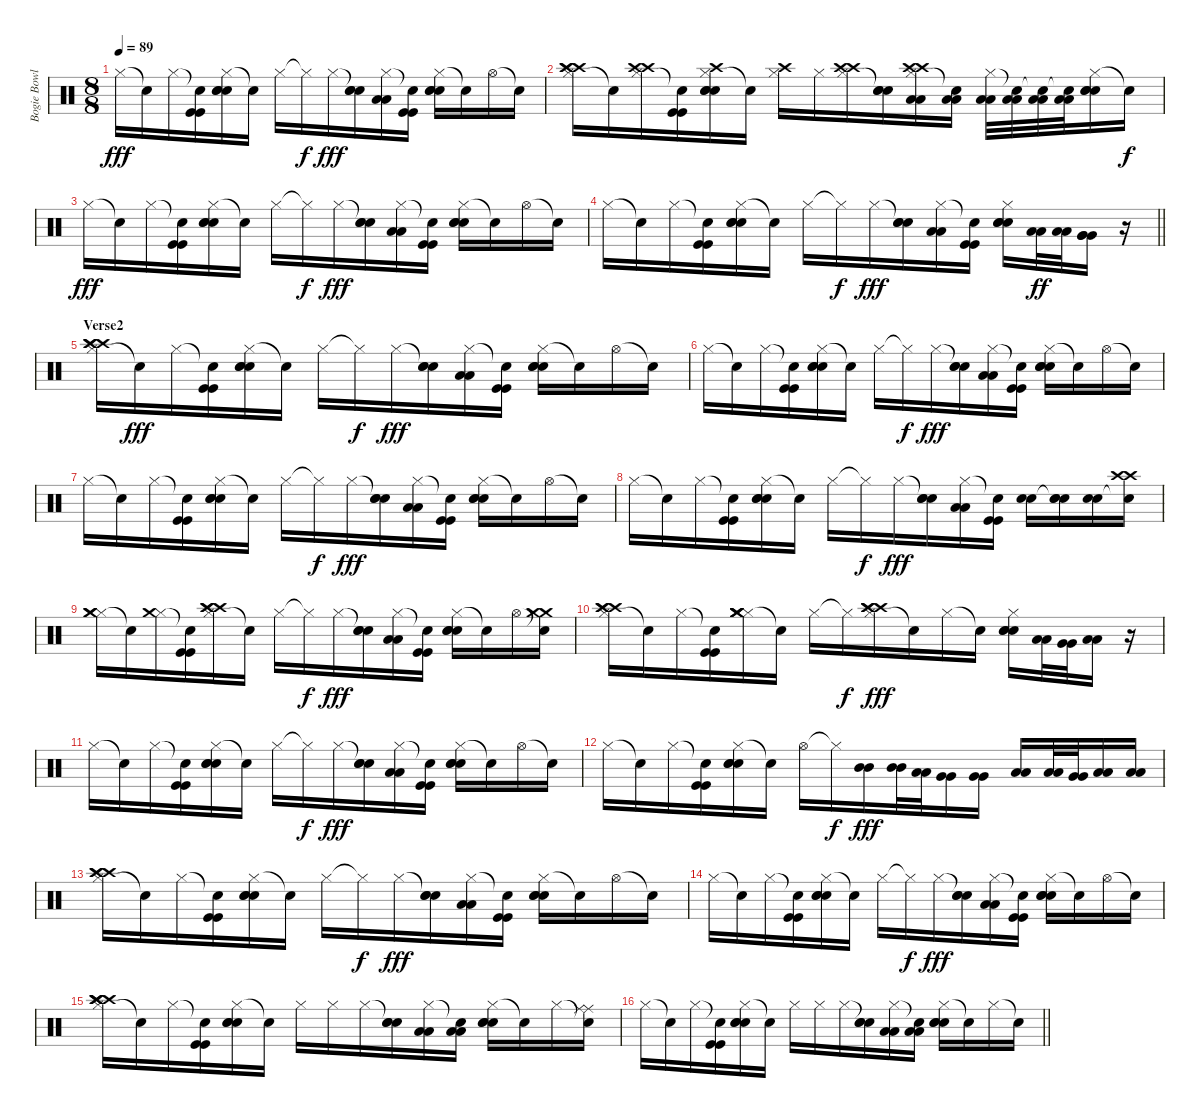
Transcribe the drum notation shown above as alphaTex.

\track ("Bogie Bowles Drums" "Bogie Bowl") {instrument percussion}
\staff {score}
\articulation defaults
\ts (8 8)
\tempo 89
\clef neutral
\ks c "Hi-Hat (closed)".16{dy fff} "Snare (hit)"{t}.16 "Hi-Hat (closed)".16
("Snare (hit)"{t} "Kick (hit)" "Kick (hit)").16 ("Hi-Hat (closed)" "Snare (hit) 2" "Snare (hit) 2" "Snare (hit) 2").16 "Snare (hit)"{t}.16 "Hi-Hat (closed)".16 "Hi-Hat (closed)"{t}.16{dy f} "Hi-Hat (closed)".16{dy fff} ("Snare (hit)"{t} "Snare (hit) 2" "Snare (hit) 2").16 ("Hi-Hat (closed)" "Low Tom (hit)" "Low Tom (hit)").16 ("Snare (hit)"{t} "Kick (hit)" "Kick (hit)").16 ("Hi-Hat (closed)" "Snare (hit) 2" "Snare (hit) 2" "Snare (hit) 2").16 "Snare (hit)"{t}.16 "Hi-Hat (open)".16 "Snare (hit)"{t}.16 |
("Hi-Hat (closed)" "Crash high (hit)" "Crash high (hit)" "Crash high (hit)").16 "Snare (hit)"{t}.16 ("Hi-Hat (closed)" "Crash high (hit)" "Crash high (hit)").16 ("Snare (hit)"{t} "Kick (hit)" "Kick (hit)").16 ("Hi-Hat (closed)" "Snare (hit) 2" "Snare (hit) 2" "Snare (hit) 2" "Crash high (hit)").16 "Snare (hit)"{t}.16 ("Hi-Hat (closed)" "Crash high (hit)").16 "Hi-Hat (closed)".16 ("Hi-Hat (closed)" "Crash high (hit)" "Crash high (hit)").16 ("Snare (hit)"{t} "Snare (hit) 2" "Snare (hit) 2").16 ("Hi-Hat (closed)" "Low Tom (hit)" "Low Tom (hit)" "Crash high (hit)" "Crash high (hit)").16 ("Snare (hit)"{t} "Low Tom (hit)" "Low Tom (hit)").16 ("Hi-Hat (closed)" "Low Tom (hit)" "Low Tom (hit)").32 ("Snare (hit)"{t} "Low Tom (hit)" "Low Tom (hit)").32 ("Snare (hit)"{t} "Low Tom (hit)" "Low Tom (hit)").32 ("Snare (hit)"{t} "Low Tom (hit)" "Low Tom (hit)").32 ("Hi-Hat (closed)" "Snare (hit) 2" "Snare (hit) 2" "Snare (hit) 2").16 "Snare (hit)"{t}.16{dy f} |
"Hi-Hat (closed)".16{dy fff} "Snare (hit)"{t}.16 "Hi-Hat (closed)".16 ("Snare (hit)"{t} "Kick (hit)" "Kick (hit)").16 ("Hi-Hat (closed)" "Snare (hit) 2" "Snare (hit) 2" "Snare (hit) 2").16 "Snare (hit)"{t}.16 "Hi-Hat (closed)".16 "Hi-Hat (closed)"{t}.16{dy f} "Hi-Hat (closed)".16{dy fff} ("Snare (hit)"{t} "Snare (hit) 2" "Snare (hit) 2").16 ("Hi-Hat (closed)" "Low Tom (hit)" "Low Tom (hit)").16 ("Snare (hit)"{t} "Kick (hit)" "Kick (hit)").16 ("Hi-Hat (closed)" "Snare (hit) 2" "Snare (hit) 2" "Snare (hit) 2").16 "Snare (hit)"{t}.16 "Hi-Hat (open)".16 "Snare (hit)"{t}.16 |
\barLineRight lightlight "Hi-Hat (closed)".16 "Snare (hit)"{t}.16 "Hi-Hat (closed)".16
("Snare (hit)"{t} "Kick (hit)" "Kick (hit)").16 ("Hi-Hat (closed)" "Snare (hit) 2" "Snare (hit) 2" "Snare (hit) 2").16 "Snare (hit)"{t}.16 "Hi-Hat (closed)".16 "Hi-Hat (closed)"{t}.16{dy f} "Hi-Hat (closed)".16{dy fff} ("Snare (hit)"{t} "Snare (hit) 2" "Snare (hit) 2").16 ("Hi-Hat (closed)" "Low Tom (hit)" "Low Tom (hit)").16 ("Snare (hit)"{t} "Kick (hit)" "Kick (hit)").16 ("Hi-Hat (closed)" "Snare (hit) 2" "Snare (hit) 2" "Snare (hit) 2").16 ("Low Tom (hit)" "Low Tom (hit)").32{dy ff} ("Low Tom (hit)" "Low Tom (hit)").32 ("Very Low Tom (hit)" "Very Low Tom (hit)" "Very Low Tom (hit)").16 r.16 |
\section ("" "Verse2")
("Hi-Hat (closed)" "Crash high (hit)" "Crash high (hit)" "Crash high (hit)").16 "Snare (hit)"{t}.16{dy fff} "Hi-Hat (closed)".16 ("Snare (hit)"{t} "Kick (hit)" "Kick (hit)").16 ("Hi-Hat (closed)" "Snare (hit) 2" "Snare (hit) 2" "Snare (hit) 2").16 "Snare (hit)"{t}.16 "Hi-Hat (closed)".16 "Hi-Hat (closed)"{t}.16{dy f} "Hi-Hat (closed)".16{dy fff} ("Snare (hit)"{t} "Snare (hit) 2" "Snare (hit) 2").16 ("Hi-Hat (closed)" "Low Tom (hit)" "Low Tom (hit)").16 ("Snare (hit)"{t} "Kick (hit)" "Kick (hit)").16 ("Hi-Hat (closed)" "Snare (hit) 2" "Snare (hit) 2" "Snare (hit) 2").16 "Snare (hit)"{t}.16 "Hi-Hat (open)".16 "Snare (hit)"{t}.16 |
"Hi-Hat (closed)".16 "Snare (hit)"{t}.16 "Hi-Hat (closed)".16 ("Snare (hit)"{t} "Kick (hit)" "Kick (hit)").16 ("Hi-Hat (closed)" "Snare (hit) 2" "Snare (hit) 2" "Snare (hit) 2").16 "Snare (hit)"{t}.16 "Hi-Hat (closed)".16 "Hi-Hat (closed)"{t}.16{dy f} "Hi-Hat (closed)".16{dy fff} ("Snare (hit)"{t} "Snare (hit) 2" "Snare (hit) 2").16 ("Hi-Hat (closed)" "Low Tom (hit)" "Low Tom (hit)").16 ("Snare (hit)"{t} "Kick (hit)" "Kick (hit)").16 ("Hi-Hat (closed)" "Snare (hit) 2" "Snare (hit) 2" "Snare (hit) 2").16 "Snare (hit)"{t}.16 "Hi-Hat (open)".16 "Snare (hit)"{t}.16 |
"Hi-Hat (closed)".16 "Snare (hit)"{t}.16 "Hi-Hat (closed)".16 ("Snare (hit)"{t} "Kick (hit)" "Kick (hit)").16 ("Hi-Hat (closed)" "Snare (hit) 2" "Snare (hit) 2" "Snare (hit) 2").16 "Snare (hit)"{t}.16 "Hi-Hat (closed)".16 "Hi-Hat (closed)"{t}.16{dy f} "Hi-Hat (closed)".16{dy fff} ("Snare (hit)"{t} "Snare (hit) 2" "Snare (hit) 2").16 ("Hi-Hat (closed)" "Low Tom (hit)" "Low Tom (hit)").16 ("Snare (hit)"{t} "Kick (hit)" "Kick (hit)").16 ("Hi-Hat (closed)" "Snare (hit) 2" "Snare (hit) 2" "Snare (hit) 2").16 "Snare (hit)"{t}.16 "Hi-Hat (open)".16 "Snare (hit)"{t}.16 |
"Hi-Hat (closed)".16 "Snare (hit)"{t}.16 "Hi-Hat (closed)".16 ("Snare (hit)"{t} "Kick (hit)" "Kick (hit)").16 ("Hi-Hat (closed)" "Snare (hit) 2" "Snare (hit) 2" "Snare (hit) 2").16 "Snare (hit)"{t}.16 "Hi-Hat (closed)".16 "Hi-Hat (closed)"{t}.16{dy f} "Hi-Hat (closed)".16{dy fff} ("Snare (hit)"{t} "Snare (hit) 2" "Snare (hit) 2").16 ("Hi-Hat (closed)" "Low Tom (hit)" "Low Tom (hit)").16 ("Snare (hit)"{t} "Kick (hit)" "Kick (hit)").16 ("Snare (hit) 2" "Snare (hit) 2").16 ("Snare (hit)"{t} "Snare (hit) 2" "Snare (hit) 2").16 ("Snare (hit) 2" "Snare (hit) 2").16 ("Snare (hit)"{t} "Crash high (hit)" "Crash high (hit)").16 |
("Hi-Hat (closed)" "Crash medium (hit)" "Crash medium (hit)").16 "Snare (hit)"{t}.16 ("Hi-Hat (closed)" "Crash medium (hit)").16 ("Snare (hit)"{t} "Kick (hit)" "Kick (hit)").16 ("Hi-Hat (closed)" "Crash high (hit)" "Crash high (hit)" "Crash high (hit)").16 "Snare (hit)"{t}.16 "Hi-Hat (closed)".16 "Hi-Hat (closed)"{t}.16{dy f} "Hi-Hat (closed)".16{dy fff} ("Snare (hit)"{t} "Snare (hit) 2" "Snare (hit) 2").16 ("Hi-Hat (closed)" "Low Tom (hit)" "Low Tom (hit)").16 ("Snare (hit)"{t} "Kick (hit)" "Kick (hit)").16 ("Hi-Hat (closed)" "Snare (hit) 2" "Snare (hit) 2" "Snare (hit) 2").16 "Snare (hit)"{t}.16 "Hi-Hat (open)".16 ("Snare (hit)"{t} "Crash medium (hit)" "Crash medium (hit)").16 |
("Hi-Hat (closed)" "Crash high (hit)" "Crash high (hit)" "Crash high (hit)").16 "Snare (hit)"{t}.16 "Hi-Hat (closed)".16 ("Snare (hit)"{t} "Kick (hit)" "Kick (hit)").16 ("Hi-Hat (closed)" "Crash medium (hit)" "Crash medium (hit)" "Crash medium (hit)").16 "Snare (hit)"{t}.16 "Hi-Hat (closed)".16 "Hi-Hat (closed)"{t}.16{dy f} ("Hi-Hat (closed)" "Crash high (hit)" "Crash high (hit)" "Crash high (hit)").16{dy fff} "Snare (hit)"{t}.16 "Hi-Hat (closed)".16 "Snare (hit)"{t}.16 ("Hi-Hat (closed)" "Snare (hit) 2" "Snare (hit) 2" "Snare (hit) 2").16 ("Low Tom (hit)" "Low Tom (hit)").32 ("Very Low Tom (hit)" "Very Low Tom (hit)").32 ("Low Floor Tom (hit)" "Low Floor Tom (hit)").16 r.16 |
"Hi-Hat (closed)".16 "Snare (hit)"{t}.16 "Hi-Hat (closed)".16 ("Snare (hit)"{t} "Kick (hit)" "Kick (hit)").16 ("Hi-Hat (closed)" "Snare (hit) 2" "Snare (hit) 2" "Snare (hit) 2").16 "Snare (hit)"{t}.16 "Hi-Hat (closed)".16 "Hi-Hat (closed)"{t}.16{dy f} "Hi-Hat (closed)".16{dy fff} ("Snare (hit)"{t} "Snare (hit) 2" "Snare (hit) 2").16 ("Hi-Hat (closed)" "Low Tom (hit)" "Low Tom (hit)").16 ("Snare (hit)"{t} "Kick (hit)" "Kick (hit)").16 ("Hi-Hat (closed)" "Snare (hit) 2" "Snare (hit) 2" "Snare (hit) 2").16 "Snare (hit)"{t}.16 "Hi-Hat (open)".16 "Snare (hit)"{t}.16 |
"Hi-Hat (closed)".16 "Snare (hit)"{t}.16 "Hi-Hat (closed)".16 ("Snare (hit)"{t} "Kick (hit)" "Kick (hit)").16 ("Hi-Hat (closed)" "Snare (hit) 2" "Snare (hit) 2" "Snare (hit) 2").16 "Snare (hit)"{t}.16 "Hi-Hat (open)".16 "Hi-Hat (closed)"{t}.16{dy f} ("Mid Tom (hit)" "Mid Tom (hit)").16{dy fff} ("Mid Tom (hit)" "Mid Tom (hit)").32 ("Low Tom (hit)" "Low Tom (hit)").32 ("Very Low Tom (hit)" "Very Low Tom (hit)").16 ("Very Low Tom (hit)" "Very Low Tom (hit)").16 ("Low Tom (hit)" "Low Tom (hit)").16 ("Low Tom (hit)" "Low Tom (hit)").32 ("Very Low Tom (hit)" "Very Low Tom (hit)").32 ("Low Floor Tom (hit)" "Low Floor Tom (hit)").16 ("Low Floor Tom (hit)" "Low Floor Tom (hit)").16 |
("Hi-Hat (closed)" "Crash high (hit)" "Crash high (hit)" "Crash high (hit)").16 "Snare (hit)"{t}.16 "Hi-Hat (closed)".16 ("Snare (hit)"{t} "Kick (hit)" "Kick (hit)").16 ("Hi-Hat (closed)" "Snare (hit) 2" "Snare (hit) 2" "Snare (hit) 2").16 "Snare (hit)"{t}.16 "Hi-Hat (closed)".16 "Hi-Hat (closed)"{t}.16{dy f} "Hi-Hat (closed)".16{dy fff} ("Snare (hit)"{t} "Snare (hit) 2" "Snare (hit) 2").16 ("Hi-Hat (closed)" "Low Tom (hit)" "Low Tom (hit)").16 ("Snare (hit)"{t} "Kick (hit)" "Kick (hit)").16 ("Hi-Hat (closed)" "Snare (hit) 2" "Snare (hit) 2" "Snare (hit) 2").16 "Snare (hit)"{t}.16 "Hi-Hat (open)".16 "Snare (hit)"{t}.16 |
"Hi-Hat (closed)".16 "Snare (hit)"{t}.16 "Hi-Hat (closed)".16 ("Snare (hit)"{t} "Kick (hit)" "Kick (hit)").16 ("Hi-Hat (closed)" "Snare (hit) 2" "Snare (hit) 2" "Snare (hit) 2").16 "Snare (hit)"{t}.16 "Hi-Hat (closed)".16 "Hi-Hat (closed)"{t}.16{dy f} "Hi-Hat (closed)".16{dy fff} ("Snare (hit)"{t} "Snare (hit) 2" "Snare (hit) 2").16 ("Hi-Hat (closed)" "Low Tom (hit)" "Low Tom (hit)").16 ("Snare (hit)"{t} "Kick (hit)" "Kick (hit)").16 ("Hi-Hat (closed)" "Snare (hit) 2" "Snare (hit) 2" "Snare (hit) 2").16 "Snare (hit)"{t}.16 "Hi-Hat (open)".16 "Snare (hit)"{t}.16 |
("Hi-Hat (closed)" "Crash high (hit)" "Crash high (hit)" "Crash high (hit)" "Crash high (hit)").16 "Snare (hit)"{t}.16 "Hi-Hat (closed)".16 ("Snare (hit)"{t} "Kick (hit)" "Kick (hit)").16 ("Hi-Hat (closed)" "Snare (hit) 2" "Snare (hit) 2" "Snare (hit) 2").16 "Snare (hit)"{t}.16 "Hi-Hat (closed)".16 "Hi-Hat (closed)".16 "Hi-Hat (closed)".16 ("Snare (hit)"{t} "Snare (hit) 2" "Snare (hit) 2").16 ("Hi-Hat (closed)" "Low Tom (hit)" "Low Tom (hit)").16 ("Snare (hit)"{t} "Low Tom (hit)" "Low Tom (hit)").16 ("Hi-Hat (closed)" "Snare (hit) 2" "Snare (hit) 2" "Snare (hit) 2").16 "Snare (hit)"{t}.16 "Hi-Hat (closed)".16 ("Snare (hit)"{t} "Ride (middle)" "Ride (middle)").16 |
\barLineRight lightlight "Hi-Hat (closed)".16 "Snare (hit)"{t}.16 "Hi-Hat (closed)".16
("Snare (hit)"{t} "Kick (hit)" "Kick (hit)").16 ("Hi-Hat (closed)" "Snare (hit) 2" "Snare (hit) 2" "Snare (hit) 2").16 "Snare (hit)"{t}.16 "Hi-Hat (closed)".16 "Hi-Hat (closed)".16 "Hi-Hat (closed)".16 ("Snare (hit)"{t} "Snare (hit) 2" "Snare (hit) 2").16 ("Hi-Hat (closed)" "Low Tom (hit)" "Low Tom (hit)").16 ("Snare (hit)"{t} "Low Tom (hit)" "Low Tom (hit)").16 ("Hi-Hat (closed)" "Snare (hit) 2" "Snare (hit) 2" "Snare (hit) 2").16 "Snare (hit)"{t}.16 "Hi-Hat (closed)".16 "Snare (hit)"{t}.16
